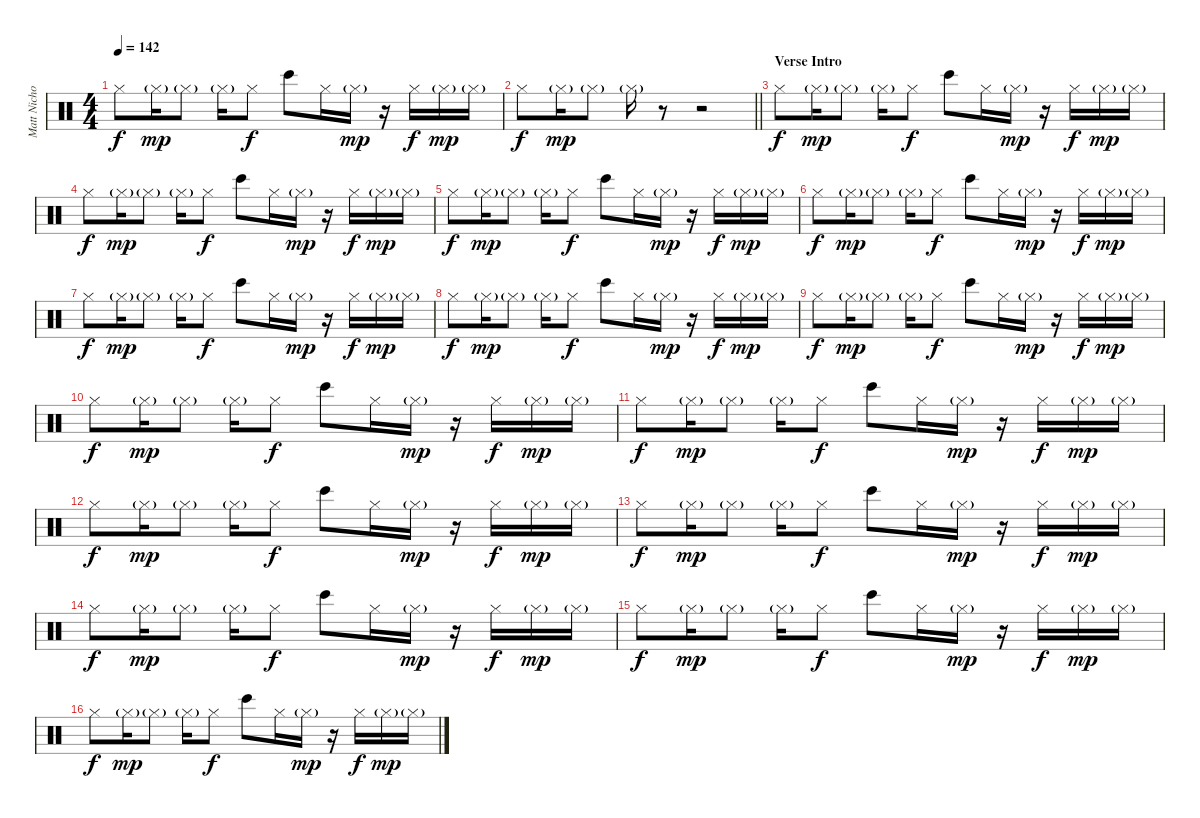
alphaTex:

\track ("Matt Nicholls" "Matt Nicho") {instrument percussion}
\staff {score}
\articulation defaults
\ts (4 4)
\tempo 142
\clef neutral
\ks c "Hi-Hat (closed)".8{dy f} "Hi-Hat (closed)"{g}.16{dy mp} "Hi-Hat (closed)"{g}.8 "Hi-Hat (closed)"{g}.16 "Hi-Hat (closed)".8{dy f} "Bongo High (hit)".8 "Hi-Hat (closed)".16 "Hi-Hat (closed)"{g}.16{dy mp}
r.16 "Hi-Hat (closed)".16{dy f} "Hi-Hat (closed)"{g}.16{dy mp} "Hi-Hat (closed)"{g}.16 |
\barLineRight lightlight "Hi-Hat (closed)".8{dy f} "Hi-Hat (closed)"{g}.16{dy mp} "Hi-Hat (closed)"{g}.8 "Hi-Hat (closed)"{g}.16
r.8 r.2 |
\section ("" "Verse Intro")
"Hi-Hat (closed)".8{dy f} "Hi-Hat (closed)"{g}.16{dy mp} "Hi-Hat (closed)"{g}.8 "Hi-Hat (closed)"{g}.16 "Hi-Hat (closed)".8{dy f} "Bongo High (hit)".8 "Hi-Hat (closed)".16 "Hi-Hat (closed)"{g}.16{dy mp} r.16 "Hi-Hat (closed)".16{dy f} "Hi-Hat (closed)"{g}.16{dy mp} "Hi-Hat (closed)"{g}.16 |
"Hi-Hat (closed)".8{dy f} "Hi-Hat (closed)"{g}.16{dy mp} "Hi-Hat (closed)"{g}.8 "Hi-Hat (closed)"{g}.16 "Hi-Hat (closed)".8{dy f} "Bongo High (hit)".8 "Hi-Hat (closed)".16 "Hi-Hat (closed)"{g}.16{dy mp} r.16 "Hi-Hat (closed)".16{dy f} "Hi-Hat (closed)"{g}.16{dy mp} "Hi-Hat (closed)"{g}.16 |
"Hi-Hat (closed)".8{dy f} "Hi-Hat (closed)"{g}.16{dy mp} "Hi-Hat (closed)"{g}.8 "Hi-Hat (closed)"{g}.16 "Hi-Hat (closed)".8{dy f} "Bongo High (hit)".8 "Hi-Hat (closed)".16 "Hi-Hat (closed)"{g}.16{dy mp} r.16 "Hi-Hat (closed)".16{dy f} "Hi-Hat (closed)"{g}.16{dy mp} "Hi-Hat (closed)"{g}.16 |
"Hi-Hat (closed)".8{dy f} "Hi-Hat (closed)"{g}.16{dy mp} "Hi-Hat (closed)"{g}.8 "Hi-Hat (closed)"{g}.16 "Hi-Hat (closed)".8{dy f} "Bongo High (hit)".8 "Hi-Hat (closed)".16 "Hi-Hat (closed)"{g}.16{dy mp} r.16 "Hi-Hat (closed)".16{dy f} "Hi-Hat (closed)"{g}.16{dy mp} "Hi-Hat (closed)"{g}.16 |
"Hi-Hat (closed)".8{dy f} "Hi-Hat (closed)"{g}.16{dy mp} "Hi-Hat (closed)"{g}.8 "Hi-Hat (closed)"{g}.16 "Hi-Hat (closed)".8{dy f} "Bongo High (hit)".8 "Hi-Hat (closed)".16 "Hi-Hat (closed)"{g}.16{dy mp} r.16 "Hi-Hat (closed)".16{dy f} "Hi-Hat (closed)"{g}.16{dy mp} "Hi-Hat (closed)"{g}.16 |
"Hi-Hat (closed)".8{dy f} "Hi-Hat (closed)"{g}.16{dy mp} "Hi-Hat (closed)"{g}.8 "Hi-Hat (closed)"{g}.16 "Hi-Hat (closed)".8{dy f} "Bongo High (hit)".8 "Hi-Hat (closed)".16 "Hi-Hat (closed)"{g}.16{dy mp} r.16 "Hi-Hat (closed)".16{dy f} "Hi-Hat (closed)"{g}.16{dy mp} "Hi-Hat (closed)"{g}.16 |
"Hi-Hat (closed)".8{dy f} "Hi-Hat (closed)"{g}.16{dy mp} "Hi-Hat (closed)"{g}.8 "Hi-Hat (closed)"{g}.16 "Hi-Hat (closed)".8{dy f} "Bongo High (hit)".8 "Hi-Hat (closed)".16 "Hi-Hat (closed)"{g}.16{dy mp} r.16 "Hi-Hat (closed)".16{dy f} "Hi-Hat (closed)"{g}.16{dy mp} "Hi-Hat (closed)"{g}.16 |
"Hi-Hat (closed)".8{dy f} "Hi-Hat (closed)"{g}.16{dy mp} "Hi-Hat (closed)"{g}.8 "Hi-Hat (closed)"{g}.16 "Hi-Hat (closed)".8{dy f} "Bongo High (hit)".8 "Hi-Hat (closed)".16 "Hi-Hat (closed)"{g}.16{dy mp} r.16 "Hi-Hat (closed)".16{dy f} "Hi-Hat (closed)"{g}.16{dy mp} "Hi-Hat (closed)"{g}.16 |
"Hi-Hat (closed)".8{dy f} "Hi-Hat (closed)"{g}.16{dy mp} "Hi-Hat (closed)"{g}.8 "Hi-Hat (closed)"{g}.16 "Hi-Hat (closed)".8{dy f} "Bongo High (hit)".8 "Hi-Hat (closed)".16 "Hi-Hat (closed)"{g}.16{dy mp} r.16 "Hi-Hat (closed)".16{dy f} "Hi-Hat (closed)"{g}.16{dy mp} "Hi-Hat (closed)"{g}.16 |
"Hi-Hat (closed)".8{dy f} "Hi-Hat (closed)"{g}.16{dy mp} "Hi-Hat (closed)"{g}.8 "Hi-Hat (closed)"{g}.16 "Hi-Hat (closed)".8{dy f} "Bongo High (hit)".8 "Hi-Hat (closed)".16 "Hi-Hat (closed)"{g}.16{dy mp} r.16 "Hi-Hat (closed)".16{dy f} "Hi-Hat (closed)"{g}.16{dy mp} "Hi-Hat (closed)"{g}.16 |
"Hi-Hat (closed)".8{dy f} "Hi-Hat (closed)"{g}.16{dy mp} "Hi-Hat (closed)"{g}.8 "Hi-Hat (closed)"{g}.16 "Hi-Hat (closed)".8{dy f} "Bongo High (hit)".8 "Hi-Hat (closed)".16 "Hi-Hat (closed)"{g}.16{dy mp} r.16 "Hi-Hat (closed)".16{dy f} "Hi-Hat (closed)"{g}.16{dy mp} "Hi-Hat (closed)"{g}.16 |
"Hi-Hat (closed)".8{dy f} "Hi-Hat (closed)"{g}.16{dy mp} "Hi-Hat (closed)"{g}.8 "Hi-Hat (closed)"{g}.16 "Hi-Hat (closed)".8{dy f} "Bongo High (hit)".8 "Hi-Hat (closed)".16 "Hi-Hat (closed)"{g}.16{dy mp} r.16 "Hi-Hat (closed)".16{dy f} "Hi-Hat (closed)"{g}.16{dy mp} "Hi-Hat (closed)"{g}.16 |
"Hi-Hat (closed)".8{dy f} "Hi-Hat (closed)"{g}.16{dy mp} "Hi-Hat (closed)"{g}.8 "Hi-Hat (closed)"{g}.16 "Hi-Hat (closed)".8{dy f} "Bongo High (hit)".8 "Hi-Hat (closed)".16 "Hi-Hat (closed)"{g}.16{dy mp} r.16 "Hi-Hat (closed)".16{dy f} "Hi-Hat (closed)"{g}.16{dy mp} "Hi-Hat (closed)"{g}.16 |
"Hi-Hat (closed)".8{dy f} "Hi-Hat (closed)"{g}.16{dy mp} "Hi-Hat (closed)"{g}.8 "Hi-Hat (closed)"{g}.16 "Hi-Hat (closed)".8{dy f} "Bongo High (hit)".8 "Hi-Hat (closed)".16 "Hi-Hat (closed)"{g}.16{dy mp} r.16 "Hi-Hat (closed)".16{dy f} "Hi-Hat (closed)"{g}.16{dy mp} "Hi-Hat (closed)"{g}.16
